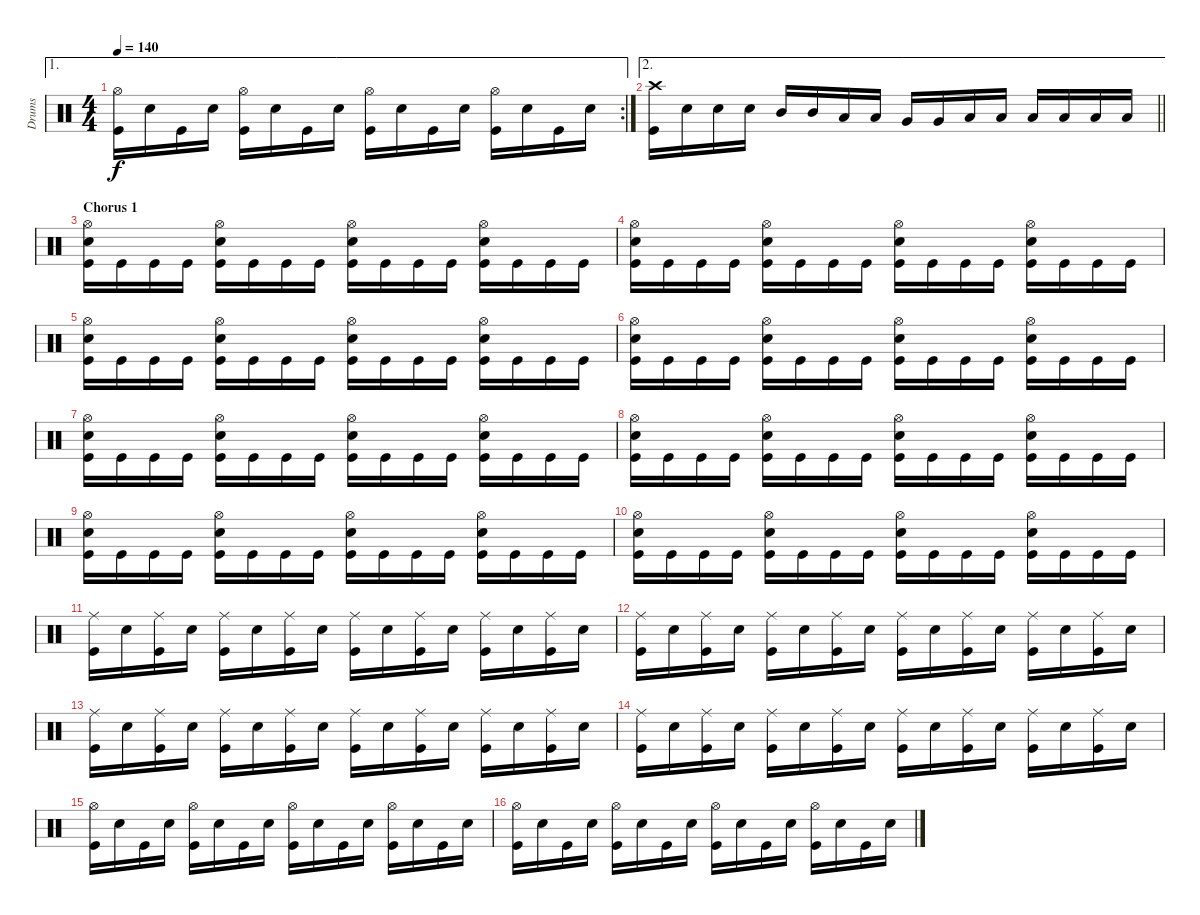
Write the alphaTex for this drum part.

\track ("Drums" "Drums") {instrument percussion}
\staff {score}
\articulation defaults
\ae 1
\rc 2
\ts (4 4)
\tempo 140
\clef neutral
\ks c
("Hi-Hat (open)" "Kick (hit)").16{dy f} "Snare (hit) 2".16 "Kick (hit)".16 "Snare (hit) 2".16 ("Hi-Hat (open)" "Kick (hit)").16 "Snare (hit) 2".16 "Kick (hit)".16 "Snare (hit) 2".16 ("Hi-Hat (open)" "Kick (hit)").16 "Snare (hit) 2".16 "Kick (hit)".16 "Snare (hit) 2".16 ("Hi-Hat (open)" "Kick (hit)").16 "Snare (hit) 2".16 "Kick (hit)".16 "Snare (hit) 2".16 |
\ae 2
\barLineRight lightlight
("Crash high (hit)" "Kick (hit)").16 "Snare (hit) 2".16 "Snare (hit) 2".16 "Snare (hit) 2".16 "Mid Tom (hit)".16 "Mid Tom (hit)".16 "Low Tom (hit)".16 "Low Tom (hit)".16 "Very Low Tom (hit)".16 "Very Low Tom (hit)".16 "Low Floor Tom (hit)".16 "Low Floor Tom (hit)".16 "Low Tom (hit)".16 "Low Tom (hit)".16 "Low Floor Tom (hit)".16 "Low Floor Tom (hit)".16 |
\section ("" "Chorus 1")
("Hi-Hat (open)" "Snare (hit) 2" "Kick (hit)").16 "Kick (hit)".16 "Kick (hit)".16 "Kick (hit)".16 ("Hi-Hat (open)" "Snare (hit) 2" "Kick (hit)").16 "Kick (hit)".16 "Kick (hit)".16 "Kick (hit)".16 ("Hi-Hat (open)" "Snare (hit) 2" "Kick (hit)").16 "Kick (hit)".16 "Kick (hit)".16 "Kick (hit)".16 ("Hi-Hat (open)" "Snare (hit) 2" "Kick (hit)").16 "Kick (hit)".16 "Kick (hit)".16 "Kick (hit)".16 |
("Hi-Hat (open)" "Snare (hit) 2" "Kick (hit)").16 "Kick (hit)".16 "Kick (hit)".16 "Kick (hit)".16 ("Hi-Hat (open)" "Snare (hit) 2" "Kick (hit)").16 "Kick (hit)".16 "Kick (hit)".16 "Kick (hit)".16 ("Hi-Hat (open)" "Snare (hit) 2" "Kick (hit)").16 "Kick (hit)".16 "Kick (hit)".16 "Kick (hit)".16 ("Hi-Hat (open)" "Snare (hit) 2" "Kick (hit)").16 "Kick (hit)".16 "Kick (hit)".16 "Kick (hit)".16 |
("Hi-Hat (open)" "Snare (hit) 2" "Kick (hit)").16 "Kick (hit)".16 "Kick (hit)".16 "Kick (hit)".16 ("Hi-Hat (open)" "Snare (hit) 2" "Kick (hit)").16 "Kick (hit)".16 "Kick (hit)".16 "Kick (hit)".16 ("Hi-Hat (open)" "Snare (hit) 2" "Kick (hit)").16 "Kick (hit)".16 "Kick (hit)".16 "Kick (hit)".16 ("Hi-Hat (open)" "Snare (hit) 2" "Kick (hit)").16 "Kick (hit)".16 "Kick (hit)".16 "Kick (hit)".16 |
("Hi-Hat (open)" "Snare (hit) 2" "Kick (hit)").16 "Kick (hit)".16 "Kick (hit)".16 "Kick (hit)".16 ("Hi-Hat (open)" "Snare (hit) 2" "Kick (hit)").16 "Kick (hit)".16 "Kick (hit)".16 "Kick (hit)".16 ("Hi-Hat (open)" "Snare (hit) 2" "Kick (hit)").16 "Kick (hit)".16 "Kick (hit)".16 "Kick (hit)".16 ("Hi-Hat (open)" "Snare (hit) 2" "Kick (hit)").16 "Kick (hit)".16 "Kick (hit)".16 "Kick (hit)".16 |
("Hi-Hat (open)" "Snare (hit) 2" "Kick (hit)").16 "Kick (hit)".16 "Kick (hit)".16 "Kick (hit)".16 ("Hi-Hat (open)" "Snare (hit) 2" "Kick (hit)").16 "Kick (hit)".16 "Kick (hit)".16 "Kick (hit)".16 ("Hi-Hat (open)" "Snare (hit) 2" "Kick (hit)").16 "Kick (hit)".16 "Kick (hit)".16 "Kick (hit)".16 ("Hi-Hat (open)" "Snare (hit) 2" "Kick (hit)").16 "Kick (hit)".16 "Kick (hit)".16 "Kick (hit)".16 |
("Hi-Hat (open)" "Snare (hit) 2" "Kick (hit)").16 "Kick (hit)".16 "Kick (hit)".16 "Kick (hit)".16 ("Hi-Hat (open)" "Snare (hit) 2" "Kick (hit)").16 "Kick (hit)".16 "Kick (hit)".16 "Kick (hit)".16 ("Hi-Hat (open)" "Snare (hit) 2" "Kick (hit)").16 "Kick (hit)".16 "Kick (hit)".16 "Kick (hit)".16 ("Hi-Hat (open)" "Snare (hit) 2" "Kick (hit)").16 "Kick (hit)".16 "Kick (hit)".16 "Kick (hit)".16 |
("Hi-Hat (open)" "Snare (hit) 2" "Kick (hit)").16 "Kick (hit)".16 "Kick (hit)".16 "Kick (hit)".16 ("Hi-Hat (open)" "Snare (hit) 2" "Kick (hit)").16 "Kick (hit)".16 "Kick (hit)".16 "Kick (hit)".16 ("Hi-Hat (open)" "Snare (hit) 2" "Kick (hit)").16 "Kick (hit)".16 "Kick (hit)".16 "Kick (hit)".16 ("Hi-Hat (open)" "Snare (hit) 2" "Kick (hit)").16 "Kick (hit)".16 "Kick (hit)".16 "Kick (hit)".16 |
("Hi-Hat (open)" "Snare (hit) 2" "Kick (hit)").16 "Kick (hit)".16 "Kick (hit)".16 "Kick (hit)".16 ("Hi-Hat (open)" "Snare (hit) 2" "Kick (hit)").16 "Kick (hit)".16 "Kick (hit)".16 "Kick (hit)".16 ("Hi-Hat (open)" "Snare (hit) 2" "Kick (hit)").16 "Kick (hit)".16 "Kick (hit)".16 "Kick (hit)".16 ("Hi-Hat (open)" "Snare (hit) 2" "Kick (hit)").16 "Kick (hit)".16 "Kick (hit)".16 "Kick (hit)".16 |
("Ride (middle)" "Kick (hit)").16 "Snare (hit) 2".16 ("Ride (middle)" "Kick (hit)").16 "Snare (hit) 2".16 ("Ride (middle)" "Kick (hit)").16 "Snare (hit) 2".16 ("Ride (middle)" "Kick (hit)").16 "Snare (hit) 2".16 ("Ride (middle)" "Kick (hit)").16 "Snare (hit) 2".16 ("Ride (middle)" "Kick (hit)").16 "Snare (hit) 2".16 ("Ride (middle)" "Kick (hit)").16 "Snare (hit) 2".16 ("Ride (middle)" "Kick (hit)").16 "Snare (hit) 2".16 |
("Ride (middle)" "Kick (hit)").16 "Snare (hit) 2".16 ("Ride (middle)" "Kick (hit)").16 "Snare (hit) 2".16 ("Ride (middle)" "Kick (hit)").16 "Snare (hit) 2".16 ("Ride (middle)" "Kick (hit)").16 "Snare (hit) 2".16 ("Ride (middle)" "Kick (hit)").16 "Snare (hit) 2".16 ("Ride (middle)" "Kick (hit)").16 "Snare (hit) 2".16 ("Ride (middle)" "Kick (hit)").16 "Snare (hit) 2".16 ("Ride (middle)" "Kick (hit)").16 "Snare (hit) 2".16 |
("Ride (middle)" "Kick (hit)").16 "Snare (hit) 2".16 ("Ride (middle)" "Kick (hit)").16 "Snare (hit) 2".16 ("Ride (middle)" "Kick (hit)").16 "Snare (hit) 2".16 ("Ride (middle)" "Kick (hit)").16 "Snare (hit) 2".16 ("Ride (middle)" "Kick (hit)").16 "Snare (hit) 2".16 ("Ride (middle)" "Kick (hit)").16 "Snare (hit) 2".16 ("Ride (middle)" "Kick (hit)").16 "Snare (hit) 2".16 ("Ride (middle)" "Kick (hit)").16 "Snare (hit) 2".16 |
("Ride (middle)" "Kick (hit)").16 "Snare (hit) 2".16 ("Ride (middle)" "Kick (hit)").16 "Snare (hit) 2".16 ("Ride (middle)" "Kick (hit)").16 "Snare (hit) 2".16 ("Ride (middle)" "Kick (hit)").16 "Snare (hit) 2".16 ("Ride (middle)" "Kick (hit)").16 "Snare (hit) 2".16 ("Ride (middle)" "Kick (hit)").16 "Snare (hit) 2".16 ("Ride (middle)" "Kick (hit)").16 "Snare (hit) 2".16 ("Ride (middle)" "Kick (hit)").16 "Snare (hit) 2".16 |
("Hi-Hat (open)" "Kick (hit)").16 "Snare (hit) 2".16 "Kick (hit)".16 "Snare (hit) 2".16 ("Hi-Hat (open)" "Kick (hit)").16 "Snare (hit) 2".16 "Kick (hit)".16 "Snare (hit) 2".16 ("Hi-Hat (open)" "Kick (hit)").16 "Snare (hit) 2".16 "Kick (hit)".16 "Snare (hit) 2".16 ("Hi-Hat (open)" "Kick (hit)").16 "Snare (hit) 2".16 "Kick (hit)".16 "Snare (hit) 2".16 |
("Hi-Hat (open)" "Kick (hit)").16 "Snare (hit) 2".16 "Kick (hit)".16 "Snare (hit) 2".16 ("Hi-Hat (open)" "Kick (hit)").16 "Snare (hit) 2".16 "Kick (hit)".16 "Snare (hit) 2".16 ("Hi-Hat (open)" "Kick (hit)").16 "Snare (hit) 2".16 "Kick (hit)".16 "Snare (hit) 2".16 ("Hi-Hat (open)" "Kick (hit)").16 "Snare (hit) 2".16 "Kick (hit)".16 "Snare (hit) 2".16
